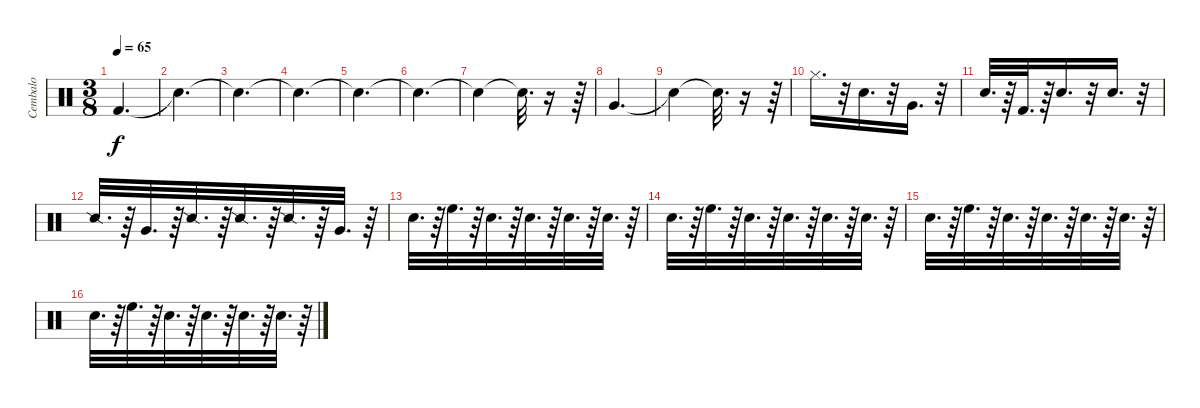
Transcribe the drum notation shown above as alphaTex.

\track ("Cembalo" "Cembalo") {instrument percussion}
\staff {score}
\articulation defaults
\ts (3 8)
\tempo 65
\clef neutral
\ks c "Kick (hit) 2".4{d dy f}
|
"Snare (hit)"{t}.4{d} |
"Snare (hit)"{t}.4{d} |
"Snare (hit)"{t}.4{d} |
"Snare (hit)"{t}.4{d} |
"Snare (hit)"{t}.4{d} |
"Snare (hit)"{t}.4 "Snare (hit)"{t}.32{d} r.16 r.64 |
"Very Low Tom (hit)".4{d} |
"Snare (hit)"{t}.4 "Snare (hit)"{t}.32{d} r.16 r.64 |
"Hi-Hat (closed)".16{d} r.32 "Snare (hit) 2".16{d} r.32 "Very Low Tom (hit)".16{d} r.32 |
"Hand Clap (hit)".32{d} r.64 "Kick (hit) 2".32{d} r.64 "Snare (hit) 2".16{d} r.32 "Snare (hit)".16{d} r.32 |
"Snare (side stick) 2".32{d} r.64 "Very Low Tom (hit)".32{d} r.64 "Snare (side stick) 2".32{d} r.64 "Snare (side stick) 2".32{d} r.64 "Snare (side stick) 2".32{d} r.64 "Very Low Tom (hit)".32{d} r.64 |
"Snare (hit) 2".32{d} r.64 "High Floor Tom (hit)".32{d} r.64 "Snare (hit) 2".32{d} r.64 "Snare (hit)".32{d} r.64 "Snare (hit)".32{d} r.64 "Snare (hit)".32{d} r.64 |
"Snare (hit) 2".32{d} r.64 "High Floor Tom (hit)".32{d} r.64 "Snare (hit) 2".32{d} r.64 "Snare (hit)".32{d} r.64 "Snare (hit)".32{d} r.64 "Snare (hit)".32{d} r.64 |
"Snare (hit) 2".32{d} r.64 "High Floor Tom (hit)".32{d} r.64 "Snare (hit) 2".32{d} r.64 "Snare (hit)".32{d} r.64 "Snare (hit)".32{d} r.64 "Snare (hit)".32{d} r.64 |
"Snare (hit) 2".32{d} r.64 "High Floor Tom (hit)".32{d} r.64 "Snare (hit) 2".32{d} r.64 "Snare (hit)".32{d} r.64 "Snare (hit)".32{d} r.64 "Snare (hit)".32{d} r.64
